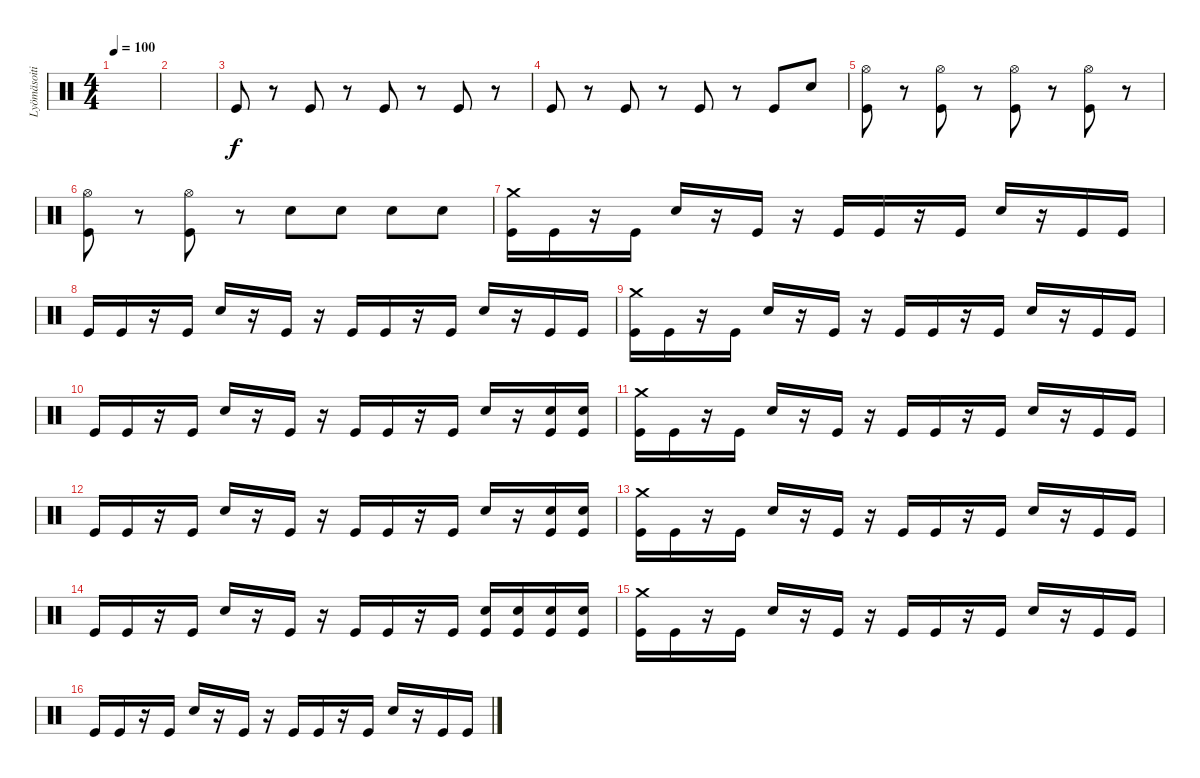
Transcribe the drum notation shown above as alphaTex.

\track ("Lyömäsoitin" "Lyömäsoiti") {instrument percussion}
\staff {score}
\articulation defaults
\ts (4 4)
\tempo 100
\clef neutral
\ks c
|
|
"Kick (hit)".8 r.8 "Kick (hit)".8 r.8 "Kick (hit)".8 r.8 "Kick (hit)".8 r.8 |
"Kick (hit)".8 r.8 "Kick (hit)".8 r.8 "Kick (hit)".8 r.8 "Kick (hit)".8 "Electric Snare (hit)".8 |
("Kick (hit)" "Hi-Hat (open)").8 r.8 ("Kick (hit)" "Hi-Hat (open)").8 r.8 ("Kick (hit)" "Hi-Hat (open)").8 r.8 ("Kick (hit)" "Hi-Hat (open)").8 r.8 |
("Kick (hit)" "Hi-Hat (open)").8 r.8 ("Kick (hit)" "Hi-Hat (open)").8 r.8 "Electric Snare (hit)".8 "Electric Snare (hit)".8 "Electric Snare (hit)".8 "Electric Snare (hit)".8 |
("Crash medium (hit)" "Kick (hit)").16 "Kick (hit)".16 r.16 "Kick (hit)".16 "Electric Snare (hit)".16 r.16 "Kick (hit)".16 r.16 "Kick (hit)".16 "Kick (hit)".16 r.16 "Kick (hit)".16 "Electric Snare (hit)".16 r.16 "Kick (hit)".16 "Kick (hit)".16 |
"Kick (hit)".16 "Kick (hit)".16 r.16 "Kick (hit)".16 "Electric Snare (hit)".16 r.16 "Kick (hit)".16 r.16 "Kick (hit)".16 "Kick (hit)".16 r.16 "Kick (hit)".16 "Electric Snare (hit)".16 r.16 "Kick (hit)".16 "Kick (hit)".16 |
("Crash medium (hit)" "Kick (hit)").16 "Kick (hit)".16 r.16 "Kick (hit)".16 "Electric Snare (hit)".16 r.16 "Kick (hit)".16 r.16 "Kick (hit)".16 "Kick (hit)".16 r.16 "Kick (hit)".16 "Electric Snare (hit)".16 r.16 "Kick (hit)".16 "Kick (hit)".16 |
"Kick (hit)".16 "Kick (hit)".16 r.16 "Kick (hit)".16 "Electric Snare (hit)".16 r.16 "Kick (hit)".16 r.16 "Kick (hit)".16 "Kick (hit)".16 r.16 "Kick (hit)".16 "Electric Snare (hit)".16 r.16 ("Kick (hit)" "Electric Snare (hit)").16 ("Kick (hit)" "Electric Snare (hit)").16 |
("Crash medium (hit)" "Kick (hit)").16 "Kick (hit)".16 r.16 "Kick (hit)".16 "Electric Snare (hit)".16 r.16 "Kick (hit)".16 r.16 "Kick (hit)".16 "Kick (hit)".16 r.16 "Kick (hit)".16 "Electric Snare (hit)".16 r.16 "Kick (hit)".16 "Kick (hit)".16 |
"Kick (hit)".16 "Kick (hit)".16 r.16 "Kick (hit)".16 "Electric Snare (hit)".16 r.16 "Kick (hit)".16 r.16 "Kick (hit)".16 "Kick (hit)".16 r.16 "Kick (hit)".16 "Electric Snare (hit)".16 r.16 ("Kick (hit)" "Electric Snare (hit)").16 ("Kick (hit)" "Electric Snare (hit)").16 |
("Crash medium (hit)" "Kick (hit)").16 "Kick (hit)".16 r.16 "Kick (hit)".16 "Electric Snare (hit)".16 r.16 "Kick (hit)".16 r.16 "Kick (hit)".16 "Kick (hit)".16 r.16 "Kick (hit)".16 "Electric Snare (hit)".16 r.16 "Kick (hit)".16 "Kick (hit)".16 |
"Kick (hit)".16 "Kick (hit)".16 r.16 "Kick (hit)".16 "Electric Snare (hit)".16 r.16 "Kick (hit)".16 r.16 "Kick (hit)".16 "Kick (hit)".16 r.16 "Kick (hit)".16 ("Kick (hit)" "Electric Snare (hit)").16 ("Kick (hit)" "Electric Snare (hit)").16 ("Kick (hit)" "Electric Snare (hit)").16 ("Kick (hit)" "Electric Snare (hit)").16 |
("Crash medium (hit)" "Kick (hit)").16 "Kick (hit)".16 r.16 "Kick (hit)".16 "Electric Snare (hit)".16 r.16 "Kick (hit)".16 r.16 "Kick (hit)".16 "Kick (hit)".16 r.16 "Kick (hit)".16 "Electric Snare (hit)".16 r.16 "Kick (hit)".16 "Kick (hit)".16 |
"Kick (hit)".16 "Kick (hit)".16 r.16 "Kick (hit)".16 "Electric Snare (hit)".16 r.16 "Kick (hit)".16 r.16 "Kick (hit)".16 "Kick (hit)".16 r.16 "Kick (hit)".16 "Electric Snare (hit)".16 r.16 "Kick (hit)".16 "Kick (hit)".16
